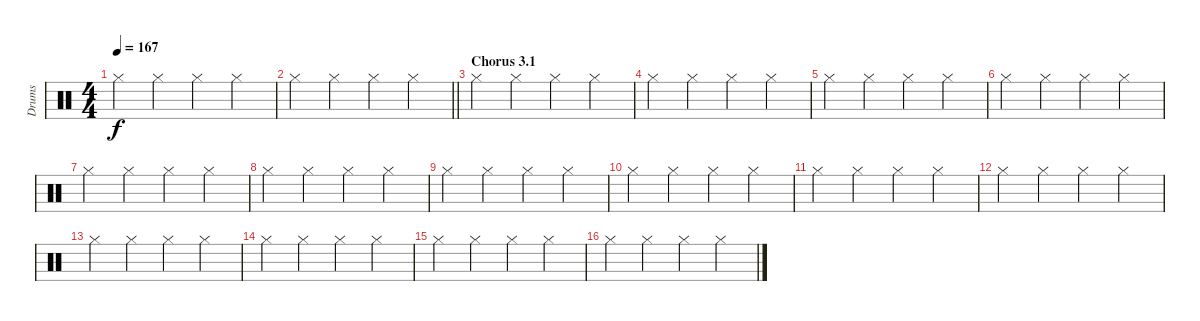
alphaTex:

\track ("Drums" "Drums") {instrument percussion}
\staff {score}
\articulation defaults
\ts (4 4)
\tempo 167
\clef neutral
\ks c "Hi-Hat (closed)".4{dy f} "Hi-Hat (closed)".4 "Hi-Hat (closed)".4 "Hi-Hat (closed)".4
|
\barLineRight lightlight "Hi-Hat (closed)".4 "Hi-Hat (closed)".4 "Hi-Hat (closed)".4 "Hi-Hat (closed)".4
|
\section ("" "Chorus 3.1")
"Hi-Hat (closed)".4 "Hi-Hat (closed)".4 "Hi-Hat (closed)".4 "Hi-Hat (closed)".4 |
"Hi-Hat (closed)".4 "Hi-Hat (closed)".4 "Hi-Hat (closed)".4 "Hi-Hat (closed)".4 |
"Hi-Hat (closed)".4 "Hi-Hat (closed)".4 "Hi-Hat (closed)".4 "Hi-Hat (closed)".4 |
"Hi-Hat (closed)".4 "Hi-Hat (closed)".4 "Hi-Hat (closed)".4 "Hi-Hat (closed)".4 |
"Hi-Hat (closed)".4 "Hi-Hat (closed)".4 "Hi-Hat (closed)".4 "Hi-Hat (closed)".4 |
"Hi-Hat (closed)".4 "Hi-Hat (closed)".4 "Hi-Hat (closed)".4 "Hi-Hat (closed)".4 |
"Hi-Hat (closed)".4 "Hi-Hat (closed)".4 "Hi-Hat (closed)".4 "Hi-Hat (closed)".4 |
"Hi-Hat (closed)".4 "Hi-Hat (closed)".4 "Hi-Hat (closed)".4 "Hi-Hat (closed)".4 |
"Hi-Hat (closed)".4 "Hi-Hat (closed)".4 "Hi-Hat (closed)".4 "Hi-Hat (closed)".4 |
"Hi-Hat (closed)".4 "Hi-Hat (closed)".4 "Hi-Hat (closed)".4 "Hi-Hat (closed)".4 |
"Hi-Hat (closed)".4 "Hi-Hat (closed)".4 "Hi-Hat (closed)".4 "Hi-Hat (closed)".4 |
"Hi-Hat (closed)".4 "Hi-Hat (closed)".4 "Hi-Hat (closed)".4 "Hi-Hat (closed)".4 |
"Hi-Hat (closed)".4 "Hi-Hat (closed)".4 "Hi-Hat (closed)".4 "Hi-Hat (closed)".4 |
"Hi-Hat (closed)".4 "Hi-Hat (closed)".4 "Hi-Hat (closed)".4 "Hi-Hat (closed)".4
